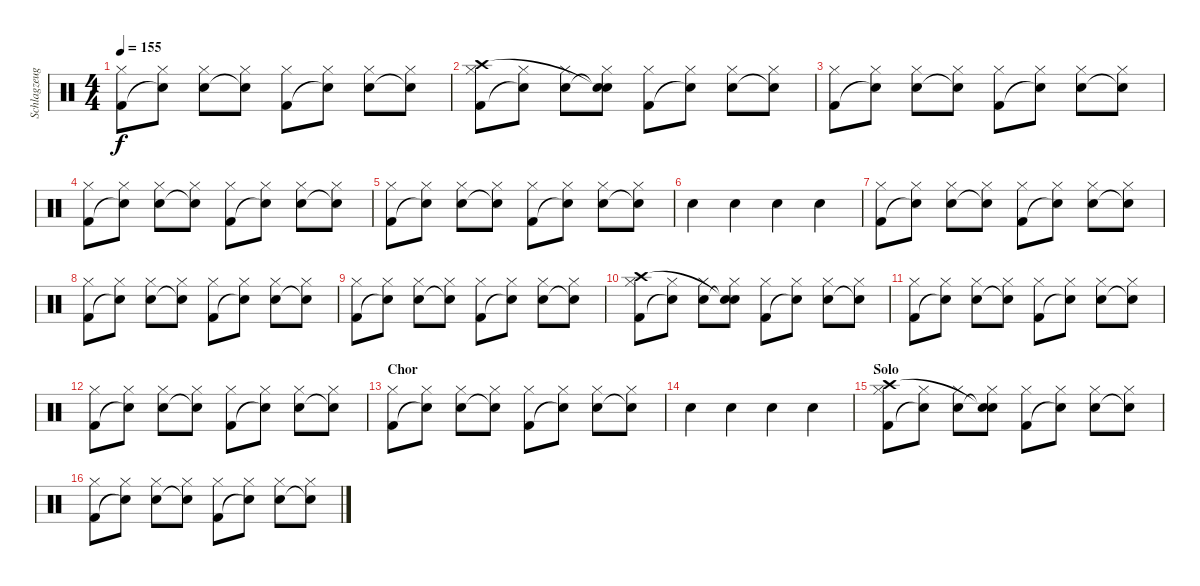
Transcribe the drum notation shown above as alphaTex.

\track ("Schlagzeug" "Schlagzeug") {instrument percussion}
\staff {score}
\articulation defaults
\ts (4 4)
\tempo 155
\clef neutral
\ks c
("Hi-Hat (closed)" "Kick (hit) 2").8{dy f} ("Hi-Hat (closed)" "Snare (hit) 2"{t}).8 ("Hi-Hat (closed)" "Snare (hit) 2").8 ("Hi-Hat (closed)" "Snare (hit)"{t}).8 ("Hi-Hat (closed)" "Kick (hit) 2").8 ("Hi-Hat (closed)" "Snare (hit)"{t}).8 ("Hi-Hat (closed)" "Snare (hit) 2").8 ("Hi-Hat (closed)" "Snare (hit)"{t}).8 |
("Hi-Hat (closed)" "Kick (hit) 2" "Crash high (hit)").8 ("Hi-Hat (closed)" "Snare (hit) 2"{t}).8 ("Hi-Hat (closed)" "Snare (hit) 2").8 ("Hi-Hat (closed)" "Snare (hit)"{t} "Snare (hit)"{t}).8 ("Hi-Hat (closed)" "Kick (hit) 2").8 ("Hi-Hat (closed)" "Snare (hit)"{t}).8 ("Hi-Hat (closed)" "Snare (hit) 2").8 ("Hi-Hat (closed)" "Snare (hit)"{t}).8 |
("Hi-Hat (closed)" "Kick (hit) 2").8 ("Hi-Hat (closed)" "Snare (hit) 2"{t}).8 ("Hi-Hat (closed)" "Snare (hit) 2").8 ("Hi-Hat (closed)" "Snare (hit)"{t}).8 ("Hi-Hat (closed)" "Kick (hit) 2").8 ("Hi-Hat (closed)" "Snare (hit)"{t}).8 ("Hi-Hat (closed)" "Snare (hit) 2").8 ("Hi-Hat (closed)" "Snare (hit)"{t}).8 |
("Hi-Hat (closed)" "Kick (hit) 2").8 ("Hi-Hat (closed)" "Snare (hit) 2"{t}).8 ("Hi-Hat (closed)" "Snare (hit) 2").8 ("Hi-Hat (closed)" "Snare (hit)"{t}).8 ("Hi-Hat (closed)" "Kick (hit) 2").8 ("Hi-Hat (closed)" "Snare (hit)"{t}).8 ("Hi-Hat (closed)" "Snare (hit) 2").8 ("Hi-Hat (closed)" "Snare (hit)"{t}).8 |
("Hi-Hat (closed)" "Kick (hit) 2").8 ("Hi-Hat (closed)" "Snare (hit) 2"{t}).8 ("Hi-Hat (closed)" "Snare (hit) 2").8 ("Hi-Hat (closed)" "Snare (hit)"{t}).8 ("Hi-Hat (closed)" "Kick (hit) 2").8 ("Hi-Hat (closed)" "Snare (hit)"{t}).8 ("Hi-Hat (closed)" "Snare (hit) 2").8 ("Hi-Hat (closed)" "Snare (hit)"{t}).8 |
"Snare (hit) 2".4 "Snare (hit) 2".4 "Snare (hit) 2".4 "Snare (hit) 2".4 |
("Hi-Hat (closed)" "Kick (hit) 2").8 ("Hi-Hat (closed)" "Snare (hit) 2"{t}).8 ("Hi-Hat (closed)" "Snare (hit) 2").8 ("Hi-Hat (closed)" "Snare (hit)"{t}).8 ("Hi-Hat (closed)" "Kick (hit) 2").8 ("Hi-Hat (closed)" "Snare (hit)"{t}).8 ("Hi-Hat (closed)" "Snare (hit) 2").8 ("Hi-Hat (closed)" "Snare (hit)"{t}).8 |
("Hi-Hat (closed)" "Kick (hit) 2").8 ("Hi-Hat (closed)" "Snare (hit) 2"{t}).8 ("Hi-Hat (closed)" "Snare (hit) 2").8 ("Hi-Hat (closed)" "Snare (hit)"{t}).8 ("Hi-Hat (closed)" "Kick (hit) 2").8 ("Hi-Hat (closed)" "Snare (hit)"{t}).8 ("Hi-Hat (closed)" "Snare (hit) 2").8 ("Hi-Hat (closed)" "Snare (hit)"{t}).8 |
("Hi-Hat (closed)" "Kick (hit) 2").8 ("Hi-Hat (closed)" "Snare (hit) 2"{t}).8 ("Hi-Hat (closed)" "Snare (hit) 2").8 ("Hi-Hat (closed)" "Snare (hit)"{t}).8 ("Hi-Hat (closed)" "Kick (hit) 2").8 ("Hi-Hat (closed)" "Snare (hit)"{t}).8 ("Hi-Hat (closed)" "Snare (hit) 2").8 ("Hi-Hat (closed)" "Snare (hit)"{t}).8 |
("Hi-Hat (closed)" "Kick (hit) 2" "Crash high (hit)").8 ("Hi-Hat (closed)" "Snare (hit) 2"{t}).8 ("Hi-Hat (closed)" "Snare (hit) 2").8 ("Hi-Hat (closed)" "Snare (hit)"{t} "Snare (hit)"{t}).8 ("Hi-Hat (closed)" "Kick (hit) 2").8 ("Hi-Hat (closed)" "Snare (hit)"{t}).8 ("Hi-Hat (closed)" "Snare (hit) 2").8 ("Hi-Hat (closed)" "Snare (hit)"{t}).8 |
("Hi-Hat (closed)" "Kick (hit) 2").8 ("Hi-Hat (closed)" "Snare (hit) 2"{t}).8 ("Hi-Hat (closed)" "Snare (hit) 2").8 ("Hi-Hat (closed)" "Snare (hit)"{t}).8 ("Hi-Hat (closed)" "Kick (hit) 2").8 ("Hi-Hat (closed)" "Snare (hit)"{t}).8 ("Hi-Hat (closed)" "Snare (hit) 2").8 ("Hi-Hat (closed)" "Snare (hit)"{t}).8 |
("Hi-Hat (closed)" "Kick (hit) 2").8 ("Hi-Hat (closed)" "Snare (hit) 2"{t}).8 ("Hi-Hat (closed)" "Snare (hit) 2").8 ("Hi-Hat (closed)" "Snare (hit)"{t}).8 ("Hi-Hat (closed)" "Kick (hit) 2").8 ("Hi-Hat (closed)" "Snare (hit)"{t}).8 ("Hi-Hat (closed)" "Snare (hit) 2").8 ("Hi-Hat (closed)" "Snare (hit)"{t}).8 |
\section ("" "Chor")
("Hi-Hat (closed)" "Kick (hit) 2").8 ("Hi-Hat (closed)" "Snare (hit) 2"{t}).8 ("Hi-Hat (closed)" "Snare (hit) 2").8 ("Hi-Hat (closed)" "Snare (hit)"{t}).8 ("Hi-Hat (closed)" "Kick (hit) 2").8 ("Hi-Hat (closed)" "Snare (hit)"{t}).8 ("Hi-Hat (closed)" "Snare (hit) 2").8 ("Hi-Hat (closed)" "Snare (hit)"{t}).8 |
"Snare (hit) 2".4 "Snare (hit) 2".4 "Snare (hit) 2".4 "Snare (hit) 2".4 |
\section ("" "Solo")
("Hi-Hat (closed)" "Kick (hit) 2" "Crash high (hit)").8 ("Hi-Hat (closed)" "Snare (hit) 2"{t}).8 ("Hi-Hat (closed)" "Snare (hit) 2").8 ("Hi-Hat (closed)" "Snare (hit)"{t} "Snare (hit)"{t}).8 ("Hi-Hat (closed)" "Kick (hit) 2").8 ("Hi-Hat (closed)" "Snare (hit)"{t}).8 ("Hi-Hat (closed)" "Snare (hit) 2").8 ("Hi-Hat (closed)" "Snare (hit)"{t}).8 |
("Hi-Hat (closed)" "Kick (hit) 2").8 ("Hi-Hat (closed)" "Snare (hit) 2"{t}).8 ("Hi-Hat (closed)" "Snare (hit) 2").8 ("Hi-Hat (closed)" "Snare (hit)"{t}).8 ("Hi-Hat (closed)" "Kick (hit) 2").8 ("Hi-Hat (closed)" "Snare (hit)"{t}).8 ("Hi-Hat (closed)" "Snare (hit) 2").8 ("Hi-Hat (closed)" "Snare (hit)"{t}).8
